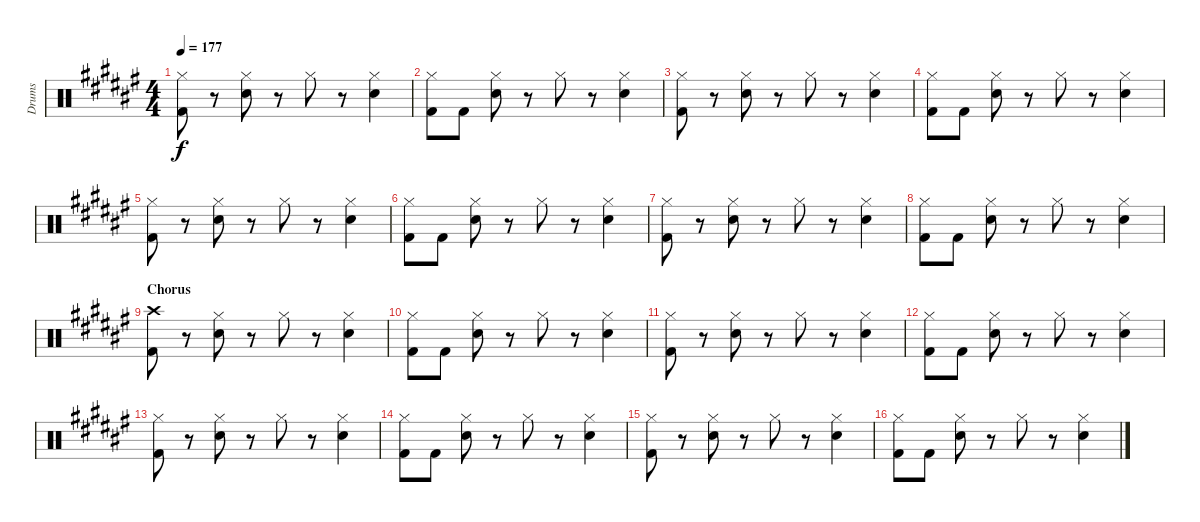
\track ("Drums" "Drums") {instrument percussion}
\staff {score}
\articulation defaults
\ts (4 4)
\tempo 177
\clef neutral
\ks d#minor
("Hi-Hat (closed)" "Kick (hit) 2").8{dy f} r.8 ("Hi-Hat (closed)" "Snare (hit) 2").8 r.8 "Hi-Hat (closed)".8 r.8 ("Hi-Hat (closed)" "Snare (hit) 2").4 |
("Hi-Hat (closed)" "Kick (hit) 2").8 "Kick (hit) 2".8 ("Hi-Hat (closed)" "Snare (hit) 2").8 r.8 "Hi-Hat (closed)".8 r.8 ("Hi-Hat (closed)" "Snare (hit) 2").4 |
("Hi-Hat (closed)" "Kick (hit) 2").8 r.8 ("Hi-Hat (closed)" "Snare (hit) 2").8 r.8 "Hi-Hat (closed)".8 r.8 ("Hi-Hat (closed)" "Snare (hit) 2").4 |
("Hi-Hat (closed)" "Kick (hit) 2").8 "Kick (hit) 2".8 ("Hi-Hat (closed)" "Snare (hit) 2").8 r.8 "Hi-Hat (closed)".8 r.8 ("Hi-Hat (closed)" "Snare (hit) 2").4 |
("Hi-Hat (closed)" "Kick (hit) 2").8 r.8 ("Hi-Hat (closed)" "Snare (hit) 2").8 r.8 "Hi-Hat (closed)".8 r.8 ("Hi-Hat (closed)" "Snare (hit) 2").4 |
("Hi-Hat (closed)" "Kick (hit) 2").8 "Kick (hit) 2".8 ("Hi-Hat (closed)" "Snare (hit) 2").8 r.8 "Hi-Hat (closed)".8 r.8 ("Hi-Hat (closed)" "Snare (hit) 2").4 |
("Hi-Hat (closed)" "Kick (hit) 2").8 r.8 ("Hi-Hat (closed)" "Snare (hit) 2").8 r.8 "Hi-Hat (closed)".8 r.8 ("Hi-Hat (closed)" "Snare (hit) 2").4 |
("Hi-Hat (closed)" "Kick (hit) 2").8 "Kick (hit) 2".8 ("Hi-Hat (closed)" "Snare (hit) 2").8 r.8 "Hi-Hat (closed)".8 r.8 ("Hi-Hat (closed)" "Snare (hit) 2").4 |
\section ("" "Chorus")
("Crash high (hit)" "Kick (hit) 2").8 r.8 ("Hi-Hat (closed)" "Snare (hit) 2").8 r.8 "Hi-Hat (closed)".8 r.8 ("Hi-Hat (closed)" "Snare (hit) 2").4 |
("Hi-Hat (closed)" "Kick (hit) 2").8 "Kick (hit) 2".8 ("Hi-Hat (closed)" "Snare (hit) 2").8 r.8 "Hi-Hat (closed)".8 r.8 ("Hi-Hat (closed)" "Snare (hit) 2").4 |
("Hi-Hat (closed)" "Kick (hit) 2").8 r.8 ("Hi-Hat (closed)" "Snare (hit) 2").8 r.8 "Hi-Hat (closed)".8 r.8 ("Hi-Hat (closed)" "Snare (hit) 2").4 |
("Hi-Hat (closed)" "Kick (hit) 2").8 "Kick (hit) 2".8 ("Hi-Hat (closed)" "Snare (hit) 2").8 r.8 "Hi-Hat (closed)".8 r.8 ("Hi-Hat (closed)" "Snare (hit) 2").4 |
("Hi-Hat (closed)" "Kick (hit) 2").8 r.8 ("Hi-Hat (closed)" "Snare (hit) 2").8 r.8 "Hi-Hat (closed)".8 r.8 ("Hi-Hat (closed)" "Snare (hit) 2").4 |
("Hi-Hat (closed)" "Kick (hit) 2").8 "Kick (hit) 2".8 ("Hi-Hat (closed)" "Snare (hit) 2").8 r.8 "Hi-Hat (closed)".8 r.8 ("Hi-Hat (closed)" "Snare (hit) 2").4 |
("Hi-Hat (closed)" "Kick (hit) 2").8 r.8 ("Hi-Hat (closed)" "Snare (hit) 2").8 r.8 "Hi-Hat (closed)".8 r.8 ("Hi-Hat (closed)" "Snare (hit) 2").4 |
("Hi-Hat (closed)" "Kick (hit) 2").8 "Kick (hit) 2".8 ("Hi-Hat (closed)" "Snare (hit) 2").8 r.8 "Hi-Hat (closed)".8 r.8 ("Hi-Hat (closed)" "Snare (hit) 2").4
